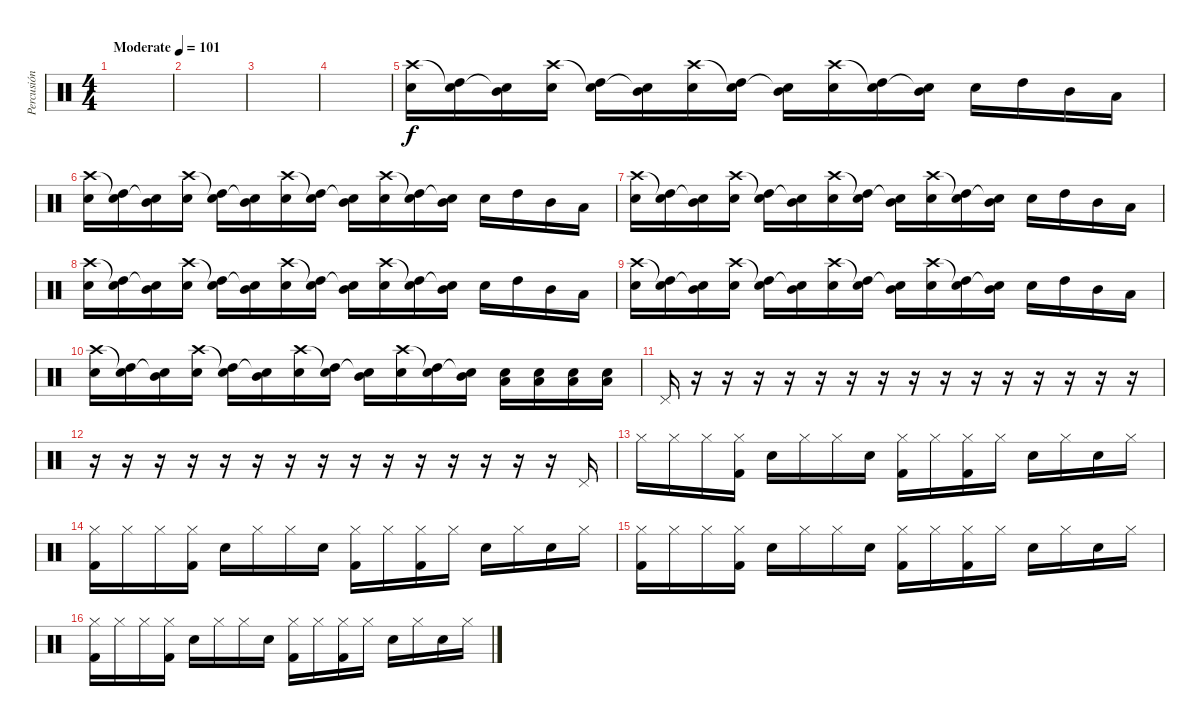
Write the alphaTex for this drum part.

\track ("Percusión" "Percusión") {instrument percussion}
\staff {score}
\articulation defaults
\ts (4 4)
\tempo (101 "Moderate")
\clef neutral
\ks c
|
|
|
|
("Crash high (hit)" "Snare (hit) 2").16 ("Snare (hit)"{t} "High Tom (hit)").16 ("Snare (hit)"{t} "Mid Tom (hit)").16 ("Crash high (hit)" "Snare (hit) 2").16 ("Snare (hit)"{t} "High Tom (hit)").16 ("Snare (hit)"{t} "Mid Tom (hit)").16 ("Crash high (hit)" "Snare (hit) 2").16 ("Snare (hit)"{t} "High Tom (hit)").16 ("Snare (hit)"{t} "Mid Tom (hit)").16 ("Crash high (hit)" "Snare (hit) 2").16 ("Snare (hit)"{t} "High Tom (hit)").16 ("Snare (hit)"{t} "Mid Tom (hit)").16 "Snare (hit) 2".16 "High Tom (hit)".16 "Mid Tom (hit)".16 "Low Tom (hit)".16 |
("Crash high (hit)" "Snare (hit) 2").16 ("Snare (hit)"{t} "High Tom (hit)").16 ("Snare (hit)"{t} "Mid Tom (hit)").16 ("Crash high (hit)" "Snare (hit) 2").16 ("Snare (hit)"{t} "High Tom (hit)").16 ("Snare (hit)"{t} "Mid Tom (hit)").16 ("Crash high (hit)" "Snare (hit) 2").16 ("Snare (hit)"{t} "High Tom (hit)").16 ("Snare (hit)"{t} "Mid Tom (hit)").16 ("Crash high (hit)" "Snare (hit) 2").16 ("Snare (hit)"{t} "High Tom (hit)").16 ("Snare (hit)"{t} "Mid Tom (hit)").16 "Snare (hit) 2".16 "High Tom (hit)".16 "Mid Tom (hit)".16 "Low Tom (hit)".16 |
("Crash high (hit)" "Snare (hit) 2").16 ("Snare (hit)"{t} "High Tom (hit)").16 ("Snare (hit)"{t} "Mid Tom (hit)").16 ("Crash high (hit)" "Snare (hit) 2").16 ("Snare (hit)"{t} "High Tom (hit)").16 ("Snare (hit)"{t} "Mid Tom (hit)").16 ("Crash high (hit)" "Snare (hit) 2").16 ("Snare (hit)"{t} "High Tom (hit)").16 ("Snare (hit)"{t} "Mid Tom (hit)").16 ("Crash high (hit)" "Snare (hit) 2").16 ("Snare (hit)"{t} "High Tom (hit)").16 ("Snare (hit)"{t} "Mid Tom (hit)").16 "Snare (hit) 2".16 "High Tom (hit)".16 "Mid Tom (hit)".16 "Low Tom (hit)".16 |
("Crash high (hit)" "Snare (hit) 2").16 ("Snare (hit)"{t} "High Tom (hit)").16 ("Snare (hit)"{t} "Mid Tom (hit)").16 ("Crash high (hit)" "Snare (hit) 2").16 ("Snare (hit)"{t} "High Tom (hit)").16 ("Snare (hit)"{t} "Mid Tom (hit)").16 ("Crash high (hit)" "Snare (hit) 2").16 ("Snare (hit)"{t} "High Tom (hit)").16 ("Snare (hit)"{t} "Mid Tom (hit)").16 ("Crash high (hit)" "Snare (hit) 2").16 ("Snare (hit)"{t} "High Tom (hit)").16 ("Snare (hit)"{t} "Mid Tom (hit)").16 "Snare (hit) 2".16 "High Tom (hit)".16 "Mid Tom (hit)".16 "Low Tom (hit)".16 |
("Crash high (hit)" "Snare (hit) 2").16 ("Snare (hit)"{t} "High Tom (hit)").16 ("Snare (hit)"{t} "Mid Tom (hit)").16 ("Crash high (hit)" "Snare (hit) 2").16 ("Snare (hit)"{t} "High Tom (hit)").16 ("Snare (hit)"{t} "Mid Tom (hit)").16 ("Crash high (hit)" "Snare (hit) 2").16 ("Snare (hit)"{t} "High Tom (hit)").16 ("Snare (hit)"{t} "Mid Tom (hit)").16 ("Crash high (hit)" "Snare (hit) 2").16 ("Snare (hit)"{t} "High Tom (hit)").16 ("Snare (hit)"{t} "Mid Tom (hit)").16 "Snare (hit) 2".16 "High Tom (hit)".16 "Mid Tom (hit)".16 "Low Tom (hit)".16 |
("Crash high (hit)" "Snare (hit) 2").16 ("Snare (hit)"{t} "High Tom (hit)").16 ("Snare (hit)"{t} "Mid Tom (hit)").16 ("Crash high (hit)" "Snare (hit) 2").16 ("Snare (hit)"{t} "High Tom (hit)").16 ("Snare (hit)"{t} "Mid Tom (hit)").16 ("Crash high (hit)" "Snare (hit) 2").16 ("Snare (hit)"{t} "High Tom (hit)").16 ("Snare (hit)"{t} "Mid Tom (hit)").16 ("Crash high (hit)" "Snare (hit) 2").16 ("Snare (hit)"{t} "High Tom (hit)").16 ("Snare (hit)"{t} "Mid Tom (hit)").16 ("Low Tom (hit)" "Snare (hit) 2").16 ("Low Tom (hit)" "Snare (hit) 2").16 ("Low Tom (hit)" "Snare (hit) 2").16 ("Low Tom (hit)" "Snare (hit) 2").16 |
"Pedal Hi-Hat (hit)".16 r.16 r.16 r.16 r.16 r.16 r.16 r.16 r.16 r.16 r.16 r.16 r.16 r.16 r.16 r.16 |
r.16 r.16 r.16 r.16 r.16 r.16 r.16 r.16 r.16 r.16 r.16 r.16 r.16 r.16 r.16 "Pedal Hi-Hat (hit)".16 |
"Hi-Hat (closed)".16 "Hi-Hat (closed)".16 "Hi-Hat (closed)".16 ("Hi-Hat (closed)" "Kick (hit) 2").16 "Snare (hit) 2".16 "Hi-Hat (closed)".16 "Hi-Hat (closed)".16 "Snare (hit) 2".16 ("Hi-Hat (closed)" "Kick (hit) 2").16 "Hi-Hat (closed)".16 ("Hi-Hat (closed)" "Kick (hit) 2").16 "Hi-Hat (closed)".16 "Snare (hit) 2".16 "Hi-Hat (closed)".16 "Snare (hit) 2".16 "Hi-Hat (closed)".16 |
("Hi-Hat (closed)" "Kick (hit) 2").16 "Hi-Hat (closed)".16 "Hi-Hat (closed)".16 ("Hi-Hat (closed)" "Kick (hit) 2").16 "Snare (hit) 2".16 "Hi-Hat (closed)".16 "Hi-Hat (closed)".16 "Snare (hit) 2".16 ("Hi-Hat (closed)" "Kick (hit) 2").16 "Hi-Hat (closed)".16 ("Hi-Hat (closed)" "Kick (hit) 2").16 "Hi-Hat (closed)".16 "Snare (hit) 2".16 "Hi-Hat (closed)".16 "Snare (hit) 2".16 "Hi-Hat (closed)".16 |
("Hi-Hat (closed)" "Kick (hit) 2").16 "Hi-Hat (closed)".16 "Hi-Hat (closed)".16 ("Hi-Hat (closed)" "Kick (hit) 2").16 "Snare (hit) 2".16 "Hi-Hat (closed)".16 "Hi-Hat (closed)".16 "Snare (hit) 2".16 ("Hi-Hat (closed)" "Kick (hit) 2").16 "Hi-Hat (closed)".16 ("Hi-Hat (closed)" "Kick (hit) 2").16 "Hi-Hat (closed)".16 "Snare (hit) 2".16 "Hi-Hat (closed)".16 "Snare (hit) 2".16 "Hi-Hat (closed)".16 |
("Hi-Hat (closed)" "Kick (hit) 2").16 "Hi-Hat (closed)".16 "Hi-Hat (closed)".16 ("Hi-Hat (closed)" "Kick (hit) 2").16 "Snare (hit) 2".16 "Hi-Hat (closed)".16 "Hi-Hat (closed)".16 "Snare (hit) 2".16 ("Hi-Hat (closed)" "Kick (hit) 2").16 "Hi-Hat (closed)".16 ("Hi-Hat (closed)" "Kick (hit) 2").16 "Hi-Hat (closed)".16 "Snare (hit) 2".16 "Hi-Hat (closed)".16 "Snare (hit) 2".16 "Hi-Hat (closed)".16
